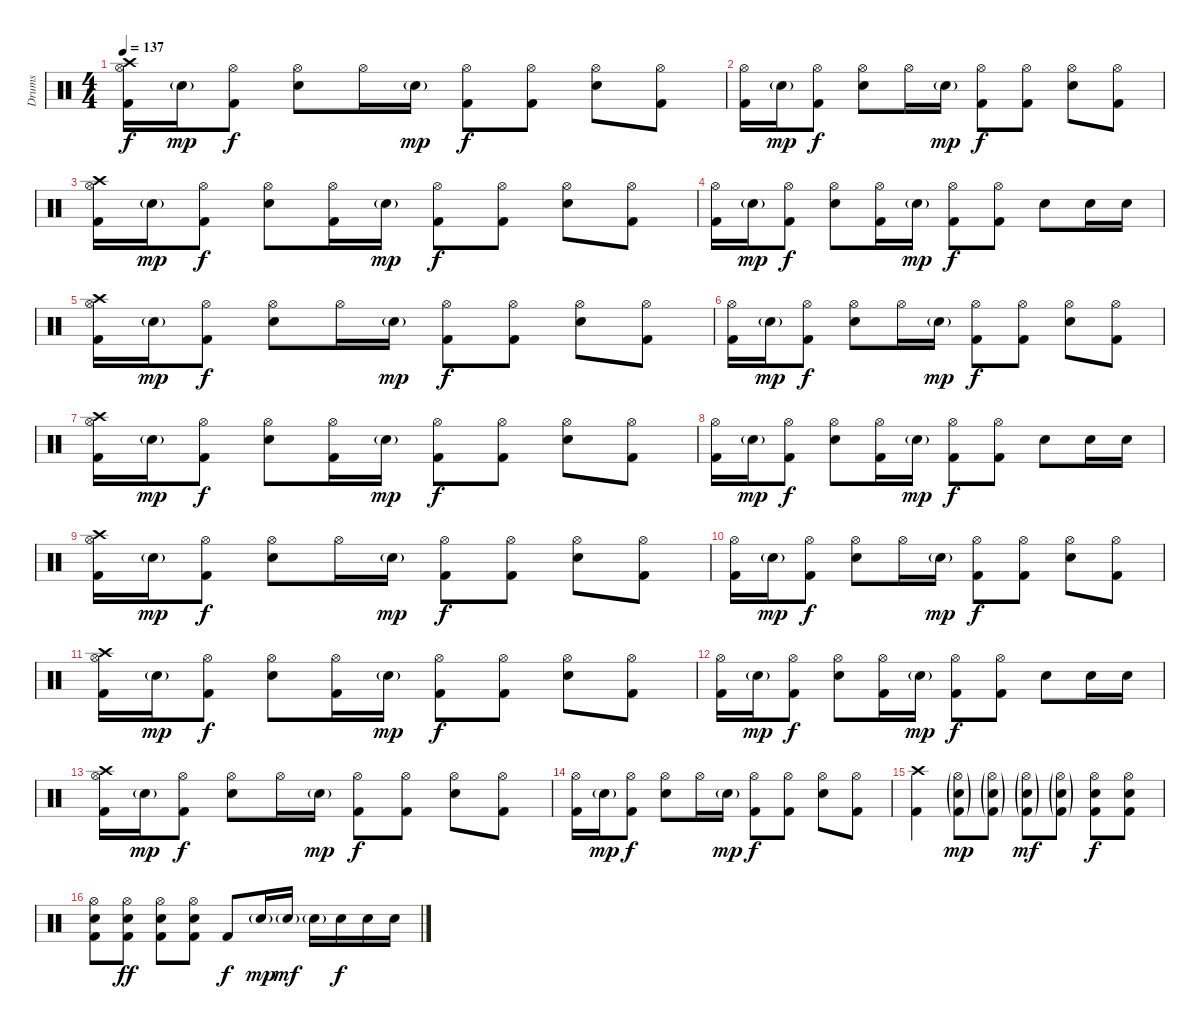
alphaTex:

\track ("Drums" "Drums") {instrument percussion}
\staff {score}
\articulation defaults
\ts (4 4)
\tempo 137
\clef neutral
\ks c
("Crash high (hit)" "Hi-Hat (open)" "Kick (hit) 2").16{dy f} "Snare (hit) 2"{g}.16{dy mp} ("Hi-Hat (open)" "Kick (hit) 2").8{dy f} ("Hi-Hat (open)" "Snare (hit) 2").8 "Hi-Hat (open)".16 "Snare (hit) 2"{g}.16{dy mp} ("Hi-Hat (open)" "Kick (hit) 2").8{dy f} ("Hi-Hat (open)" "Kick (hit) 2").8 ("Hi-Hat (open)" "Snare (hit) 2").8 ("Hi-Hat (open)" "Kick (hit) 2").8 |
("Hi-Hat (open)" "Kick (hit) 2").16 "Snare (hit) 2"{g}.16{dy mp} ("Hi-Hat (open)" "Kick (hit) 2").8{dy f} ("Hi-Hat (open)" "Snare (hit) 2").8 "Hi-Hat (open)".16 "Snare (hit) 2"{g}.16{dy mp} ("Hi-Hat (open)" "Kick (hit) 2").8{dy f} ("Hi-Hat (open)" "Kick (hit) 2").8 ("Hi-Hat (open)" "Snare (hit) 2").8 ("Hi-Hat (open)" "Kick (hit) 2").8 |
("Crash high (hit)" "Hi-Hat (open)" "Kick (hit) 2").16 "Snare (hit) 2"{g}.16{dy mp} ("Hi-Hat (open)" "Kick (hit) 2").8{dy f} ("Hi-Hat (open)" "Snare (hit) 2").8 ("Hi-Hat (open)" "Kick (hit) 2").16 "Snare (hit) 2"{g}.16{dy mp} ("Hi-Hat (open)" "Kick (hit) 2").8{dy f} ("Hi-Hat (open)" "Kick (hit) 2").8 ("Hi-Hat (open)" "Snare (hit) 2").8 ("Hi-Hat (open)" "Kick (hit) 2").8 |
("Hi-Hat (open)" "Kick (hit) 2").16 "Snare (hit) 2"{g}.16{dy mp} ("Hi-Hat (open)" "Kick (hit) 2").8{dy f} ("Hi-Hat (open)" "Snare (hit) 2").8 ("Hi-Hat (open)" "Kick (hit) 2").16 "Snare (hit) 2"{g}.16{dy mp} ("Hi-Hat (open)" "Kick (hit) 2").8{dy f} ("Hi-Hat (open)" "Kick (hit) 2").8 "Snare (hit) 2".8 "Snare (hit) 2".16 "Snare (hit) 2".16 |
("Crash high (hit)" "Hi-Hat (open)" "Kick (hit) 2").16 "Snare (hit) 2"{g}.16{dy mp} ("Hi-Hat (open)" "Kick (hit) 2").8{dy f} ("Hi-Hat (open)" "Snare (hit) 2").8 "Hi-Hat (open)".16 "Snare (hit) 2"{g}.16{dy mp} ("Hi-Hat (open)" "Kick (hit) 2").8{dy f} ("Hi-Hat (open)" "Kick (hit) 2").8 ("Hi-Hat (open)" "Snare (hit) 2").8 ("Hi-Hat (open)" "Kick (hit) 2").8 |
("Hi-Hat (open)" "Kick (hit) 2").16 "Snare (hit) 2"{g}.16{dy mp} ("Hi-Hat (open)" "Kick (hit) 2").8{dy f} ("Hi-Hat (open)" "Snare (hit) 2").8 "Hi-Hat (open)".16 "Snare (hit) 2"{g}.16{dy mp} ("Hi-Hat (open)" "Kick (hit) 2").8{dy f} ("Hi-Hat (open)" "Kick (hit) 2").8 ("Hi-Hat (open)" "Snare (hit) 2").8 ("Hi-Hat (open)" "Kick (hit) 2").8 |
("Crash high (hit)" "Hi-Hat (open)" "Kick (hit) 2").16 "Snare (hit) 2"{g}.16{dy mp} ("Hi-Hat (open)" "Kick (hit) 2").8{dy f} ("Hi-Hat (open)" "Snare (hit) 2").8 ("Hi-Hat (open)" "Kick (hit) 2").16 "Snare (hit) 2"{g}.16{dy mp} ("Hi-Hat (open)" "Kick (hit) 2").8{dy f} ("Hi-Hat (open)" "Kick (hit) 2").8 ("Hi-Hat (open)" "Snare (hit) 2").8 ("Hi-Hat (open)" "Kick (hit) 2").8 |
("Hi-Hat (open)" "Kick (hit) 2").16 "Snare (hit) 2"{g}.16{dy mp} ("Hi-Hat (open)" "Kick (hit) 2").8{dy f} ("Hi-Hat (open)" "Snare (hit) 2").8 ("Hi-Hat (open)" "Kick (hit) 2").16 "Snare (hit) 2"{g}.16{dy mp} ("Hi-Hat (open)" "Kick (hit) 2").8{dy f} ("Hi-Hat (open)" "Kick (hit) 2").8 "Snare (hit) 2".8 "Snare (hit) 2".16 "Snare (hit) 2".16 |
("Crash high (hit)" "Hi-Hat (open)" "Kick (hit) 2").16 "Snare (hit) 2"{g}.16{dy mp} ("Hi-Hat (open)" "Kick (hit) 2").8{dy f} ("Hi-Hat (open)" "Snare (hit) 2").8 "Hi-Hat (open)".16 "Snare (hit) 2"{g}.16{dy mp} ("Hi-Hat (open)" "Kick (hit) 2").8{dy f} ("Hi-Hat (open)" "Kick (hit) 2").8 ("Hi-Hat (open)" "Snare (hit) 2").8 ("Hi-Hat (open)" "Kick (hit) 2").8 |
("Hi-Hat (open)" "Kick (hit) 2").16 "Snare (hit) 2"{g}.16{dy mp} ("Hi-Hat (open)" "Kick (hit) 2").8{dy f} ("Hi-Hat (open)" "Snare (hit) 2").8 "Hi-Hat (open)".16 "Snare (hit) 2"{g}.16{dy mp} ("Hi-Hat (open)" "Kick (hit) 2").8{dy f} ("Hi-Hat (open)" "Kick (hit) 2").8 ("Hi-Hat (open)" "Snare (hit) 2").8 ("Hi-Hat (open)" "Kick (hit) 2").8 |
("Crash high (hit)" "Hi-Hat (open)" "Kick (hit) 2").16 "Snare (hit) 2"{g}.16{dy mp} ("Hi-Hat (open)" "Kick (hit) 2").8{dy f} ("Hi-Hat (open)" "Snare (hit) 2").8 ("Hi-Hat (open)" "Kick (hit) 2").16 "Snare (hit) 2"{g}.16{dy mp} ("Hi-Hat (open)" "Kick (hit) 2").8{dy f} ("Hi-Hat (open)" "Kick (hit) 2").8 ("Hi-Hat (open)" "Snare (hit) 2").8 ("Hi-Hat (open)" "Kick (hit) 2").8 |
("Hi-Hat (open)" "Kick (hit) 2").16 "Snare (hit) 2"{g}.16{dy mp} ("Hi-Hat (open)" "Kick (hit) 2").8{dy f} ("Hi-Hat (open)" "Snare (hit) 2").8 ("Hi-Hat (open)" "Kick (hit) 2").16 "Snare (hit) 2"{g}.16{dy mp} ("Hi-Hat (open)" "Kick (hit) 2").8{dy f} ("Hi-Hat (open)" "Kick (hit) 2").8 "Snare (hit) 2".8 "Snare (hit) 2".16 "Snare (hit) 2".16 |
("Crash high (hit)" "Hi-Hat (open)" "Kick (hit) 2").16 "Snare (hit) 2"{g}.16{dy mp} ("Hi-Hat (open)" "Kick (hit) 2").8{dy f} ("Hi-Hat (open)" "Snare (hit) 2").8 "Hi-Hat (open)".16 "Snare (hit) 2"{g}.16{dy mp} ("Hi-Hat (open)" "Kick (hit) 2").8{dy f} ("Hi-Hat (open)" "Kick (hit) 2").8 ("Hi-Hat (open)" "Snare (hit) 2").8 ("Hi-Hat (open)" "Kick (hit) 2").8 |
("Hi-Hat (open)" "Kick (hit) 2").16 "Snare (hit) 2"{g}.16{dy mp} ("Hi-Hat (open)" "Kick (hit) 2").8{dy f} ("Hi-Hat (open)" "Snare (hit) 2").8 "Hi-Hat (open)".16 "Snare (hit) 2"{g}.16{dy mp} ("Hi-Hat (open)" "Kick (hit) 2").8{dy f} ("Hi-Hat (open)" "Kick (hit) 2").8 ("Hi-Hat (open)" "Snare (hit) 2").8 ("Hi-Hat (open)" "Kick (hit) 2").8 |
("Crash high (hit)" "Kick (hit) 2").4 ("Hi-Hat (open)"{g} "Snare (hit) 2"{g} "Kick (hit) 2"{g}).8{dy mp} ("Hi-Hat (open)"{g} "Snare (hit) 2"{g} "Kick (hit) 2"{g}).8 ("Hi-Hat (open)"{g} "Snare (hit) 2"{g} "Kick (hit) 2"{g}).8{dy mf} ("Hi-Hat (open)"{g} "Snare (hit) 2"{g} "Kick (hit) 2"{g}).8 ("Hi-Hat (open)" "Snare (hit) 2" "Kick (hit) 2").8{dy f} ("Hi-Hat (open)" "Snare (hit) 2" "Kick (hit) 2").8 |
("Hi-Hat (open)" "Snare (hit) 2" "Kick (hit) 2").8 ("Hi-Hat (open)" "Snare (hit) 2" "Kick (hit) 2").8{dy ff} ("Hi-Hat (open)" "Snare (hit) 2" "Kick (hit) 2").8 ("Hi-Hat (open)" "Snare (hit) 2" "Kick (hit) 2").8 "Kick (hit) 2".8{dy f} "Snare (hit) 2"{g}.16{dy mp} "Snare (hit) 2"{g}.16{dy mf} "Snare (hit) 2"{g}.16 "Snare (hit) 2".16{dy f} "Snare (hit) 2".16 "Snare (hit) 2".16
